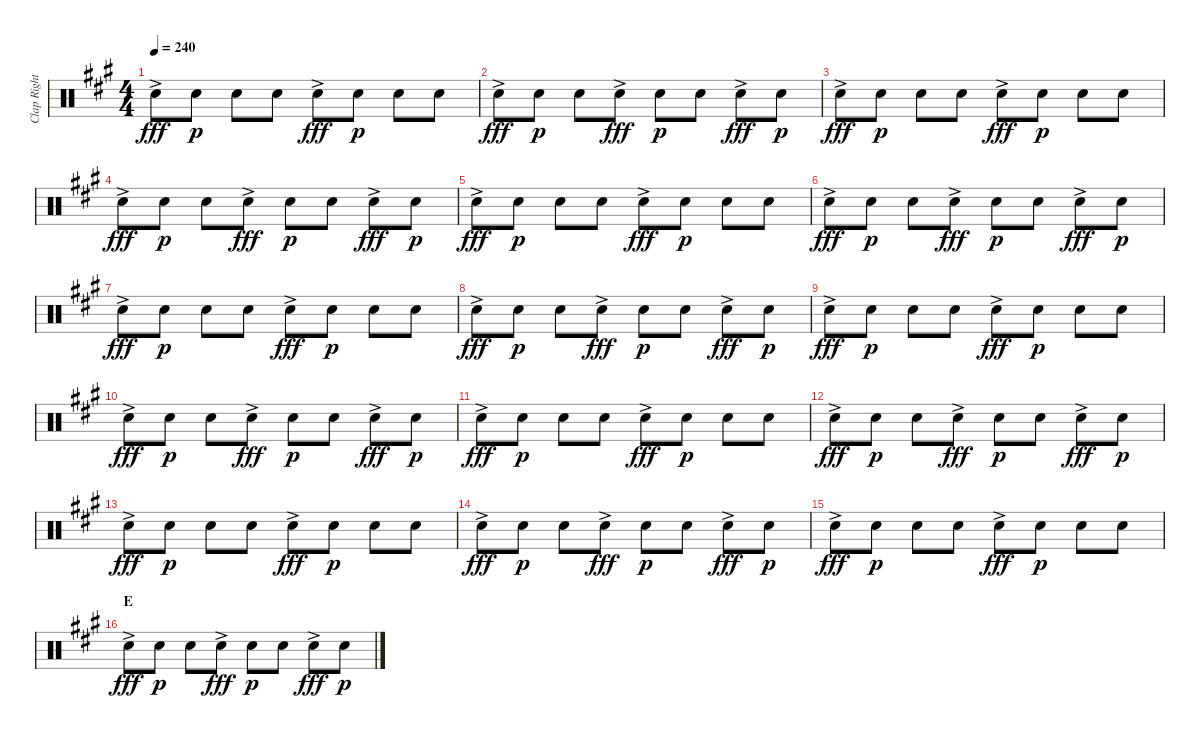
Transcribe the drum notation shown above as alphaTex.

\track ("Clap Right" "Clap Right") {instrument percussion}
\staff {score}
\articulation defaults
\ts (4 4)
\tempo 240
\clef neutral
\ks a "Hand Clap (hit)"{ac}.8{dy fff} "Hand Clap (hit)".8{dy p} "Hand Clap (hit)".8 "Hand Clap (hit)".8 "Hand Clap (hit)"{ac}.8{dy fff} "Hand Clap (hit)".8{dy p} "Hand Clap (hit)".8 "Hand Clap (hit)".8
|
"Hand Clap (hit)"{ac}.8{dy fff} "Hand Clap (hit)".8{dy p} "Hand Clap (hit)".8 "Hand Clap (hit)"{ac}.8{dy fff} "Hand Clap (hit)".8{dy p} "Hand Clap (hit)".8 "Hand Clap (hit)"{ac}.8{dy fff} "Hand Clap (hit)".8{dy p} |
"Hand Clap (hit)"{ac}.8{dy fff} "Hand Clap (hit)".8{dy p} "Hand Clap (hit)".8 "Hand Clap (hit)".8 "Hand Clap (hit)"{ac}.8{dy fff} "Hand Clap (hit)".8{dy p} "Hand Clap (hit)".8 "Hand Clap (hit)".8 |
"Hand Clap (hit)"{ac}.8{dy fff} "Hand Clap (hit)".8{dy p} "Hand Clap (hit)".8 "Hand Clap (hit)"{ac}.8{dy fff} "Hand Clap (hit)".8{dy p} "Hand Clap (hit)".8 "Hand Clap (hit)"{ac}.8{dy fff} "Hand Clap (hit)".8{dy p} |
"Hand Clap (hit)"{ac}.8{dy fff} "Hand Clap (hit)".8{dy p} "Hand Clap (hit)".8 "Hand Clap (hit)".8 "Hand Clap (hit)"{ac}.8{dy fff} "Hand Clap (hit)".8{dy p} "Hand Clap (hit)".8 "Hand Clap (hit)".8 |
"Hand Clap (hit)"{ac}.8{dy fff} "Hand Clap (hit)".8{dy p} "Hand Clap (hit)".8 "Hand Clap (hit)"{ac}.8{dy fff} "Hand Clap (hit)".8{dy p} "Hand Clap (hit)".8 "Hand Clap (hit)"{ac}.8{dy fff} "Hand Clap (hit)".8{dy p} |
"Hand Clap (hit)"{ac}.8{dy fff} "Hand Clap (hit)".8{dy p} "Hand Clap (hit)".8 "Hand Clap (hit)".8 "Hand Clap (hit)"{ac}.8{dy fff} "Hand Clap (hit)".8{dy p} "Hand Clap (hit)".8 "Hand Clap (hit)".8 |
"Hand Clap (hit)"{ac}.8{dy fff} "Hand Clap (hit)".8{dy p} "Hand Clap (hit)".8 "Hand Clap (hit)"{ac}.8{dy fff} "Hand Clap (hit)".8{dy p} "Hand Clap (hit)".8 "Hand Clap (hit)"{ac}.8{dy fff} "Hand Clap (hit)".8{dy p} |
"Hand Clap (hit)"{ac}.8{dy fff} "Hand Clap (hit)".8{dy p} "Hand Clap (hit)".8 "Hand Clap (hit)".8 "Hand Clap (hit)"{ac}.8{dy fff} "Hand Clap (hit)".8{dy p} "Hand Clap (hit)".8 "Hand Clap (hit)".8 |
"Hand Clap (hit)"{ac}.8{dy fff} "Hand Clap (hit)".8{dy p} "Hand Clap (hit)".8 "Hand Clap (hit)"{ac}.8{dy fff} "Hand Clap (hit)".8{dy p} "Hand Clap (hit)".8 "Hand Clap (hit)"{ac}.8{dy fff} "Hand Clap (hit)".8{dy p} |
"Hand Clap (hit)"{ac}.8{dy fff} "Hand Clap (hit)".8{dy p} "Hand Clap (hit)".8 "Hand Clap (hit)".8 "Hand Clap (hit)"{ac}.8{dy fff} "Hand Clap (hit)".8{dy p} "Hand Clap (hit)".8 "Hand Clap (hit)".8 |
"Hand Clap (hit)"{ac}.8{dy fff} "Hand Clap (hit)".8{dy p} "Hand Clap (hit)".8 "Hand Clap (hit)"{ac}.8{dy fff} "Hand Clap (hit)".8{dy p} "Hand Clap (hit)".8 "Hand Clap (hit)"{ac}.8{dy fff} "Hand Clap (hit)".8{dy p} |
"Hand Clap (hit)"{ac}.8{dy fff} "Hand Clap (hit)".8{dy p} "Hand Clap (hit)".8 "Hand Clap (hit)".8 "Hand Clap (hit)"{ac}.8{dy fff} "Hand Clap (hit)".8{dy p} "Hand Clap (hit)".8 "Hand Clap (hit)".8 |
"Hand Clap (hit)"{ac}.8{dy fff} "Hand Clap (hit)".8{dy p} "Hand Clap (hit)".8 "Hand Clap (hit)"{ac}.8{dy fff} "Hand Clap (hit)".8{dy p} "Hand Clap (hit)".8 "Hand Clap (hit)"{ac}.8{dy fff} "Hand Clap (hit)".8{dy p} |
"Hand Clap (hit)"{ac}.8{dy fff} "Hand Clap (hit)".8{dy p} "Hand Clap (hit)".8 "Hand Clap (hit)".8 "Hand Clap (hit)"{ac}.8{dy fff} "Hand Clap (hit)".8{dy p} "Hand Clap (hit)".8 "Hand Clap (hit)".8 |
\section ("" "E")
"Hand Clap (hit)"{ac}.8{dy fff} "Hand Clap (hit)".8{dy p} "Hand Clap (hit)".8 "Hand Clap (hit)"{ac}.8{dy fff} "Hand Clap (hit)".8{dy p} "Hand Clap (hit)".8 "Hand Clap (hit)"{ac}.8{dy fff} "Hand Clap (hit)".8{dy p}
